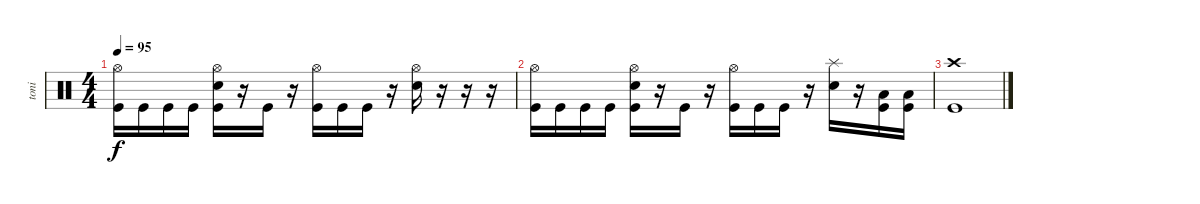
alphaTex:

\track ("toni" "toni") {instrument percussion}
\staff {score}
\articulation defaults
\ts (4 4)
\tempo 95
\clef neutral
\ks c
("Hi-Hat (open)" "Kick (hit)").16{dy f} "Kick (hit)".16 "Kick (hit)".16 "Kick (hit)".16 ("Hi-Hat (open)" "Snare (hit) 2" "Kick (hit)").16 r.16 "Kick (hit)".16 r.16 ("Hi-Hat (open)" "Kick (hit)").16 "Kick (hit)".16 "Kick (hit)".16 r.16 ("Hi-Hat (open)" "Snare (hit) 2").16 r.16 r.16 r.16 |
("Hi-Hat (open)" "Kick (hit)").16 "Kick (hit)".16 "Kick (hit)".16 "Kick (hit)".16 ("Hi-Hat (open)" "Snare (hit) 2" "Kick (hit)").16 r.16 "Kick (hit)".16 r.16 ("Hi-Hat (open)" "Kick (hit)").16 "Kick (hit)".16 "Kick (hit)".16 r.16 ("Splash (hit)" "Snare (hit) 2").16 r.16 ("Low Tom (hit)" "Kick (hit)").16 ("Low Tom (hit)" "Kick (hit)").16 |
("Crash high (hit)" "Kick (hit)").1
